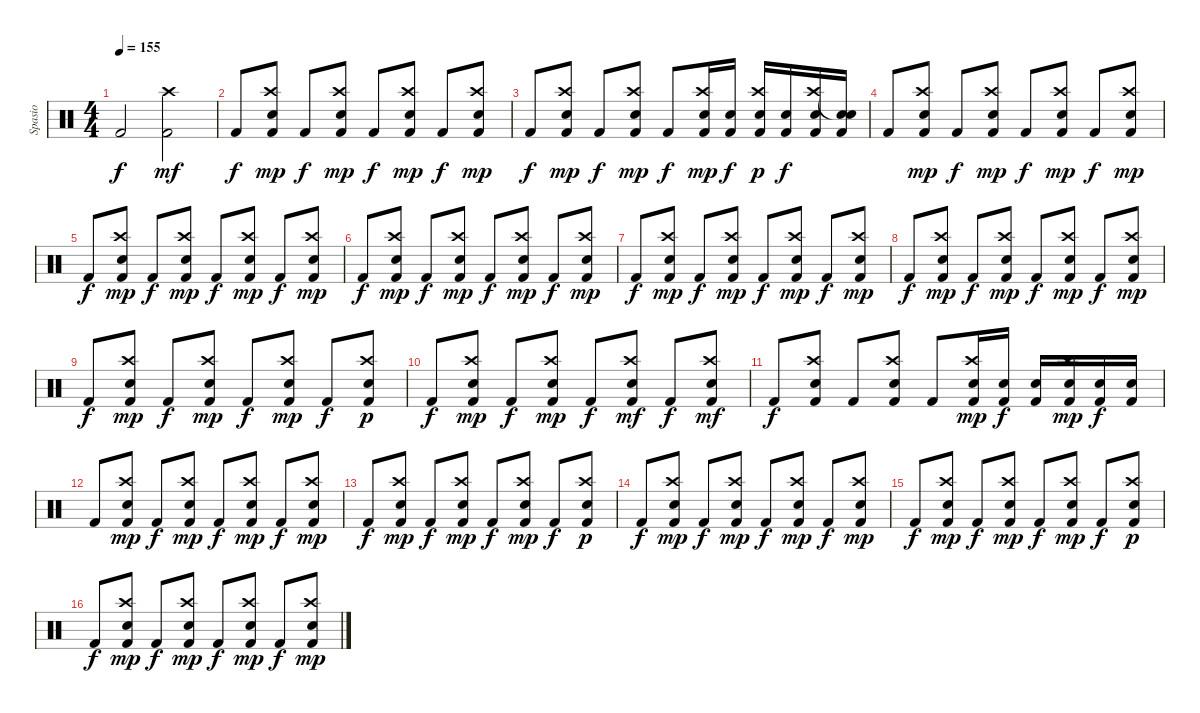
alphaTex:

\track ("Spasio" "Spasio") {instrument percussion}
\staff {score}
\articulation defaults
\ts (4 4)
\tempo 155
\clef neutral
\ks c "Kick (hit) 2".2{dy f}
("Crash high (hit)" "Kick (hit) 2").2{dy mf} |
"Kick (hit) 2".8{dy f} ("Crash high (hit)" "Electric Snare (hit)" "Kick (hit) 2").8{dy mp} "Kick (hit) 2".8{dy f} ("Crash high (hit)" "Electric Snare (hit)" "Kick (hit) 2").8{dy mp} "Kick (hit) 2".8{dy f} ("Crash high (hit)" "Electric Snare (hit)" "Kick (hit) 2").8{dy mp} "Kick (hit) 2".8{dy f} ("Crash high (hit)" "Electric Snare (hit)" "Kick (hit) 2").8{dy mp} |
"Kick (hit) 2".8{dy f} ("Crash high (hit)" "Electric Snare (hit)" "Kick (hit) 2").8{dy mp} "Kick (hit) 2".8{dy f} ("Crash high (hit)" "Electric Snare (hit)" "Kick (hit) 2").8{dy mp} "Kick (hit) 2".8{dy f} ("Crash high (hit)" "Electric Snare (hit)" "Kick (hit) 2").16{dy mp} ("Electric Snare (hit)" "Kick (hit) 2").16{dy f} ("Crash high (hit)" "Electric Snare (hit)" "Kick (hit) 2").16{dy p} ("Electric Snare (hit)" "Kick (hit) 2").16{dy f} ("Crash high (hit)" "Electric Snare (hit)" "Kick (hit) 2").16 ("Snare (hit)"{t} "Electric Snare (hit)" "Kick (hit) 2").16 |
"Kick (hit) 2".8 ("Crash high (hit)" "Electric Snare (hit)" "Kick (hit) 2").8{dy mp} "Kick (hit) 2".8{dy f} ("Crash high (hit)" "Electric Snare (hit)" "Kick (hit) 2").8{dy mp} "Kick (hit) 2".8{dy f} ("Crash high (hit)" "Electric Snare (hit)" "Kick (hit) 2").8{dy mp} "Kick (hit) 2".8{dy f} ("Crash high (hit)" "Electric Snare (hit)" "Kick (hit) 2").8{dy mp} |
"Kick (hit) 2".8{dy f} ("Crash high (hit)" "Electric Snare (hit)" "Kick (hit) 2").8{dy mp} "Kick (hit) 2".8{dy f} ("Crash high (hit)" "Electric Snare (hit)" "Kick (hit) 2").8{dy mp} "Kick (hit) 2".8{dy f} ("Crash high (hit)" "Electric Snare (hit)" "Kick (hit) 2").8{dy mp} "Kick (hit) 2".8{dy f} ("Crash high (hit)" "Electric Snare (hit)" "Kick (hit) 2").8{dy mp} |
"Kick (hit) 2".8{dy f} ("Crash high (hit)" "Electric Snare (hit)" "Kick (hit) 2").8{dy mp} "Kick (hit) 2".8{dy f} ("Crash high (hit)" "Electric Snare (hit)" "Kick (hit) 2").8{dy mp} "Kick (hit) 2".8{dy f} ("Crash high (hit)" "Electric Snare (hit)" "Kick (hit) 2").8{dy mp} "Kick (hit) 2".8{dy f} ("Crash high (hit)" "Electric Snare (hit)" "Kick (hit) 2").8{dy mp} |
"Kick (hit) 2".8{dy f} ("Crash high (hit)" "Electric Snare (hit)" "Kick (hit) 2").8{dy mp} "Kick (hit) 2".8{dy f} ("Crash high (hit)" "Electric Snare (hit)" "Kick (hit) 2").8{dy mp} "Kick (hit) 2".8{dy f} ("Crash high (hit)" "Electric Snare (hit)" "Kick (hit) 2").8{dy mp} "Kick (hit) 2".8{dy f} ("Crash high (hit)" "Electric Snare (hit)" "Kick (hit) 2").8{dy mp} |
"Kick (hit) 2".8{dy f} ("Crash high (hit)" "Electric Snare (hit)" "Kick (hit) 2").8{dy mp} "Kick (hit) 2".8{dy f} ("Crash high (hit)" "Electric Snare (hit)" "Kick (hit) 2").8{dy mp} "Kick (hit) 2".8{dy f} ("Crash high (hit)" "Electric Snare (hit)" "Kick (hit) 2").8{dy mp} "Kick (hit) 2".8{dy f} ("Crash high (hit)" "Electric Snare (hit)" "Kick (hit) 2").8{dy mp} |
"Kick (hit) 2".8{dy f} ("Crash high (hit)" "Electric Snare (hit)" "Kick (hit) 2").8{dy mp} "Kick (hit) 2".8{dy f} ("Crash high (hit)" "Electric Snare (hit)" "Kick (hit) 2").8{dy mp} "Kick (hit) 2".8{dy f} ("Crash high (hit)" "Electric Snare (hit)" "Kick (hit) 2").8{dy mp} "Kick (hit) 2".8{dy f} ("Crash high (hit)" "Electric Snare (hit)" "Kick (hit) 2").8{dy p} |
"Kick (hit) 2".8{dy f} ("Crash high (hit)" "Electric Snare (hit)" "Kick (hit) 2").8{dy mp} "Kick (hit) 2".8{dy f} ("Crash high (hit)" "Electric Snare (hit)" "Kick (hit) 2").8{dy mp} "Kick (hit) 2".8{dy f} ("Crash high (hit)" "Electric Snare (hit)" "Kick (hit) 2").8{dy mf} "Kick (hit) 2".8{dy f} ("Crash high (hit)" "Electric Snare (hit)" "Kick (hit) 2").8{dy mf} |
"Kick (hit) 2".8{dy f} ("Crash high (hit)" "Electric Snare (hit)" "Kick (hit) 2").8 "Kick (hit) 2".8 ("Crash high (hit)" "Electric Snare (hit)" "Kick (hit) 2").8 "Kick (hit) 2".8 ("Crash high (hit)" "Electric Snare (hit)" "Kick (hit) 2").16{dy mp} ("Electric Snare (hit)" "Kick (hit) 2").16{dy f} ("Electric Snare (hit)" "Kick (hit) 2").16 ("Crash high (hit)" "Electric Snare (hit)" "Kick (hit) 2").16{dy mp} ("Electric Snare (hit)" "Kick (hit) 2").16{dy f} ("Electric Snare (hit)" "Kick (hit) 2").16 |
"Kick (hit) 2".8 ("Crash high (hit)" "Electric Snare (hit)" "Kick (hit) 2").8{dy mp} "Kick (hit) 2".8{dy f} ("Crash high (hit)" "Electric Snare (hit)" "Kick (hit) 2").8{dy mp} "Kick (hit) 2".8{dy f} ("Crash high (hit)" "Electric Snare (hit)" "Kick (hit) 2").8{dy mp} "Kick (hit) 2".8{dy f} ("Crash high (hit)" "Electric Snare (hit)" "Kick (hit) 2").8{dy mp} |
"Kick (hit) 2".8{dy f} ("Crash high (hit)" "Electric Snare (hit)" "Kick (hit) 2").8{dy mp} "Kick (hit) 2".8{dy f} ("Crash high (hit)" "Electric Snare (hit)" "Kick (hit) 2").8{dy mp} "Kick (hit) 2".8{dy f} ("Crash high (hit)" "Electric Snare (hit)" "Kick (hit) 2").8{dy mp} "Kick (hit) 2".8{dy f} ("Crash high (hit)" "Electric Snare (hit)" "Kick (hit) 2").8{dy p} |
"Kick (hit) 2".8{dy f} ("Crash high (hit)" "Electric Snare (hit)" "Kick (hit) 2").8{dy mp} "Kick (hit) 2".8{dy f} ("Crash high (hit)" "Electric Snare (hit)" "Kick (hit) 2").8{dy mp} "Kick (hit) 2".8{dy f} ("Crash high (hit)" "Electric Snare (hit)" "Kick (hit) 2").8{dy mp} "Kick (hit) 2".8{dy f} ("Crash high (hit)" "Electric Snare (hit)" "Kick (hit) 2").8{dy mp} |
"Kick (hit) 2".8{dy f} ("Crash high (hit)" "Electric Snare (hit)" "Kick (hit) 2").8{dy mp} "Kick (hit) 2".8{dy f} ("Crash high (hit)" "Electric Snare (hit)" "Kick (hit) 2").8{dy mp} "Kick (hit) 2".8{dy f} ("Crash high (hit)" "Electric Snare (hit)" "Kick (hit) 2").8{dy mp} "Kick (hit) 2".8{dy f} ("Crash high (hit)" "Electric Snare (hit)" "Kick (hit) 2").8{dy p} |
"Kick (hit) 2".8{dy f} ("Crash high (hit)" "Electric Snare (hit)" "Kick (hit) 2").8{dy mp} "Kick (hit) 2".8{dy f} ("Crash high (hit)" "Electric Snare (hit)" "Kick (hit) 2").8{dy mp} "Kick (hit) 2".8{dy f} ("Crash high (hit)" "Electric Snare (hit)" "Kick (hit) 2").8{dy mp} "Kick (hit) 2".8{dy f} ("Crash high (hit)" "Electric Snare (hit)" "Kick (hit) 2").8{dy mp}
